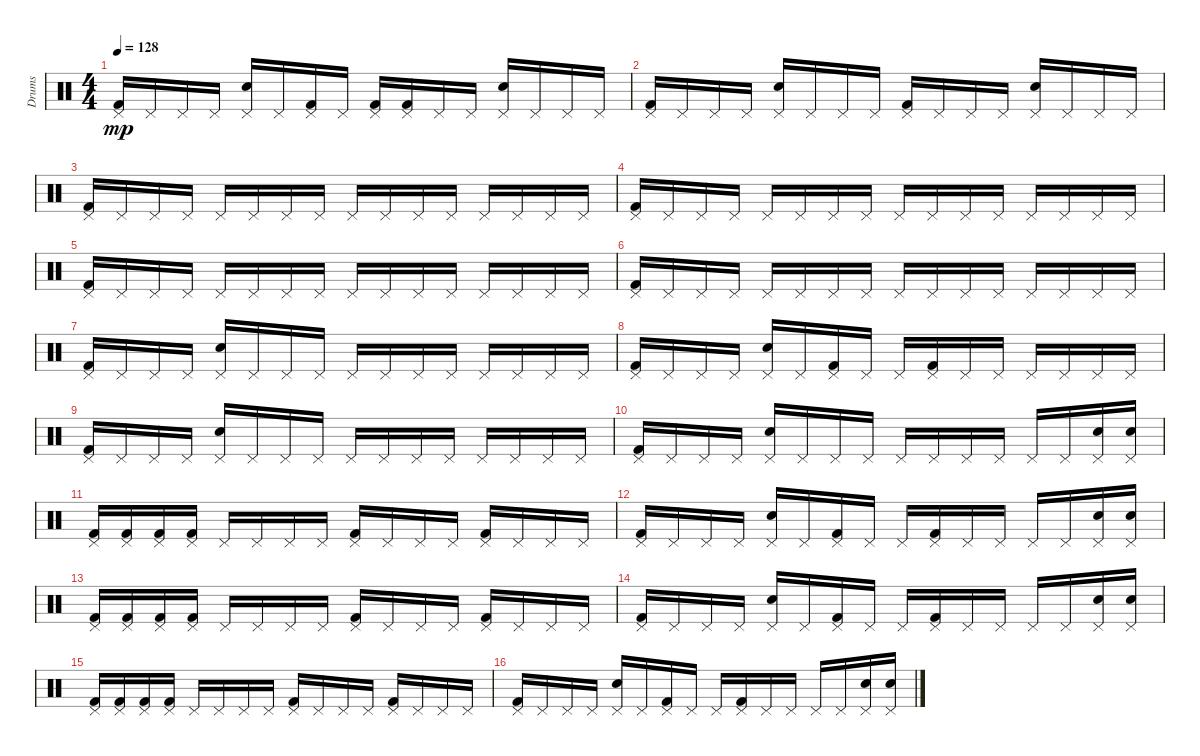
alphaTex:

\track ("Drums" "Drums") {instrument percussion}
\staff {score}
\articulation defaults
\ts (4 4)
\tempo 128
\clef neutral
\ks c
("Kick (hit) 2" "Pedal Hi-Hat (hit)").16{dy mp} "Pedal Hi-Hat (hit)".16 "Pedal Hi-Hat (hit)".16 "Pedal Hi-Hat (hit)".16 ("Electric Snare (hit)" "Pedal Hi-Hat (hit)").16 "Pedal Hi-Hat (hit)".16 ("Kick (hit) 2" "Pedal Hi-Hat (hit)").16 "Pedal Hi-Hat (hit)".16 ("Pedal Hi-Hat (hit)" "Kick (hit) 2").16 ("Pedal Hi-Hat (hit)" "Kick (hit) 2").16 "Pedal Hi-Hat (hit)".16 "Pedal Hi-Hat (hit)".16 ("Pedal Hi-Hat (hit)" "Electric Snare (hit)").16 "Pedal Hi-Hat (hit)".16 "Pedal Hi-Hat (hit)".16 "Pedal Hi-Hat (hit)".16 |
("Kick (hit) 2" "Pedal Hi-Hat (hit)").16 "Pedal Hi-Hat (hit)".16 "Pedal Hi-Hat (hit)".16 "Pedal Hi-Hat (hit)".16 ("Pedal Hi-Hat (hit)" "Electric Snare (hit)").16 "Pedal Hi-Hat (hit)".16 "Pedal Hi-Hat (hit)".16 "Pedal Hi-Hat (hit)".16 ("Pedal Hi-Hat (hit)" "Kick (hit) 2").16 "Pedal Hi-Hat (hit)".16 "Pedal Hi-Hat (hit)".16 "Pedal Hi-Hat (hit)".16 ("Pedal Hi-Hat (hit)" "Electric Snare (hit)").16 "Pedal Hi-Hat (hit)".16 "Pedal Hi-Hat (hit)".16 "Pedal Hi-Hat (hit)".16 |
("Pedal Hi-Hat (hit)" "Kick (hit) 2").16 "Pedal Hi-Hat (hit)".16 "Pedal Hi-Hat (hit)".16 "Pedal Hi-Hat (hit)".16 "Pedal Hi-Hat (hit)".16 "Pedal Hi-Hat (hit)".16 "Pedal Hi-Hat (hit)".16 "Pedal Hi-Hat (hit)".16 "Pedal Hi-Hat (hit)".16 "Pedal Hi-Hat (hit)".16 "Pedal Hi-Hat (hit)".16 "Pedal Hi-Hat (hit)".16 "Pedal Hi-Hat (hit)".16 "Pedal Hi-Hat (hit)".16 "Pedal Hi-Hat (hit)".16 "Pedal Hi-Hat (hit)".16 |
("Pedal Hi-Hat (hit)" "Kick (hit) 2").16 "Pedal Hi-Hat (hit)".16 "Pedal Hi-Hat (hit)".16 "Pedal Hi-Hat (hit)".16 "Pedal Hi-Hat (hit)".16 "Pedal Hi-Hat (hit)".16 "Pedal Hi-Hat (hit)".16 "Pedal Hi-Hat (hit)".16 "Pedal Hi-Hat (hit)".16 "Pedal Hi-Hat (hit)".16 "Pedal Hi-Hat (hit)".16 "Pedal Hi-Hat (hit)".16 "Pedal Hi-Hat (hit)".16 "Pedal Hi-Hat (hit)".16 "Pedal Hi-Hat (hit)".16 "Pedal Hi-Hat (hit)".16 |
("Kick (hit) 2" "Pedal Hi-Hat (hit)").16 "Pedal Hi-Hat (hit)".16 "Pedal Hi-Hat (hit)".16 "Pedal Hi-Hat (hit)".16 "Pedal Hi-Hat (hit)".16 "Pedal Hi-Hat (hit)".16 "Pedal Hi-Hat (hit)".16 "Pedal Hi-Hat (hit)".16 "Pedal Hi-Hat (hit)".16 "Pedal Hi-Hat (hit)".16 "Pedal Hi-Hat (hit)".16 "Pedal Hi-Hat (hit)".16 "Pedal Hi-Hat (hit)".16 "Pedal Hi-Hat (hit)".16 "Pedal Hi-Hat (hit)".16 "Pedal Hi-Hat (hit)".16 |
("Kick (hit) 2" "Pedal Hi-Hat (hit)").16 "Pedal Hi-Hat (hit)".16 "Pedal Hi-Hat (hit)".16 "Pedal Hi-Hat (hit)".16 "Pedal Hi-Hat (hit)".16 "Pedal Hi-Hat (hit)".16 "Pedal Hi-Hat (hit)".16 "Pedal Hi-Hat (hit)".16 "Pedal Hi-Hat (hit)".16 "Pedal Hi-Hat (hit)".16 "Pedal Hi-Hat (hit)".16 "Pedal Hi-Hat (hit)".16 "Pedal Hi-Hat (hit)".16 "Pedal Hi-Hat (hit)".16 "Pedal Hi-Hat (hit)".16 "Pedal Hi-Hat (hit)".16 |
("Pedal Hi-Hat (hit)" "Kick (hit) 2").16 "Pedal Hi-Hat (hit)".16 "Pedal Hi-Hat (hit)".16 "Pedal Hi-Hat (hit)".16 ("Pedal Hi-Hat (hit)" "Electric Snare (hit)").16 "Pedal Hi-Hat (hit)".16 "Pedal Hi-Hat (hit)".16 "Pedal Hi-Hat (hit)".16 "Pedal Hi-Hat (hit)".16 "Pedal Hi-Hat (hit)".16 "Pedal Hi-Hat (hit)".16 "Pedal Hi-Hat (hit)".16 "Pedal Hi-Hat (hit)".16 "Pedal Hi-Hat (hit)".16 "Pedal Hi-Hat (hit)".16 "Pedal Hi-Hat (hit)".16 |
("Pedal Hi-Hat (hit)" "Kick (hit) 2").16 "Pedal Hi-Hat (hit)".16 "Pedal Hi-Hat (hit)".16 "Pedal Hi-Hat (hit)".16 ("Pedal Hi-Hat (hit)" "Electric Snare (hit)").16 "Pedal Hi-Hat (hit)".16 ("Kick (hit) 2" "Pedal Hi-Hat (hit)").16 "Pedal Hi-Hat (hit)".16 "Pedal Hi-Hat (hit)".16 ("Kick (hit) 2" "Pedal Hi-Hat (hit)").16 "Pedal Hi-Hat (hit)".16 "Pedal Hi-Hat (hit)".16 "Pedal Hi-Hat (hit)".16 "Pedal Hi-Hat (hit)".16 "Pedal Hi-Hat (hit)".16 "Pedal Hi-Hat (hit)".16 |
("Kick (hit) 2" "Pedal Hi-Hat (hit)").16 "Pedal Hi-Hat (hit)".16 "Pedal Hi-Hat (hit)".16 "Pedal Hi-Hat (hit)".16 ("Electric Snare (hit)" "Pedal Hi-Hat (hit)").16 "Pedal Hi-Hat (hit)".16 "Pedal Hi-Hat (hit)".16 "Pedal Hi-Hat (hit)".16 "Pedal Hi-Hat (hit)".16 "Pedal Hi-Hat (hit)".16 "Pedal Hi-Hat (hit)".16 "Pedal Hi-Hat (hit)".16 "Pedal Hi-Hat (hit)".16 "Pedal Hi-Hat (hit)".16 "Pedal Hi-Hat (hit)".16 "Pedal Hi-Hat (hit)".16 |
("Kick (hit) 2" "Pedal Hi-Hat (hit)").16 "Pedal Hi-Hat (hit)".16 "Pedal Hi-Hat (hit)".16 "Pedal Hi-Hat (hit)".16 ("Pedal Hi-Hat (hit)" "Electric Snare (hit)").16 "Pedal Hi-Hat (hit)".16 "Pedal Hi-Hat (hit)".16 "Pedal Hi-Hat (hit)".16 "Pedal Hi-Hat (hit)".16 "Pedal Hi-Hat (hit)".16 "Pedal Hi-Hat (hit)".16 "Pedal Hi-Hat (hit)".16 "Pedal Hi-Hat (hit)".16 "Pedal Hi-Hat (hit)".16 ("Pedal Hi-Hat (hit)" "Electric Snare (hit)").16 ("Electric Snare (hit)" "Pedal Hi-Hat (hit)").16 |
("Kick (hit) 2" "Pedal Hi-Hat (hit)").16 ("Pedal Hi-Hat (hit)" "Kick (hit) 2").16 ("Pedal Hi-Hat (hit)" "Kick (hit) 2").16 ("Pedal Hi-Hat (hit)" "Kick (hit) 2").16 "Pedal Hi-Hat (hit)".16 "Pedal Hi-Hat (hit)".16 "Pedal Hi-Hat (hit)".16 "Pedal Hi-Hat (hit)".16 ("Kick (hit) 2" "Pedal Hi-Hat (hit)").16 "Pedal Hi-Hat (hit)".16 "Pedal Hi-Hat (hit)".16 "Pedal Hi-Hat (hit)".16 ("Kick (hit) 2" "Pedal Hi-Hat (hit)").16 "Pedal Hi-Hat (hit)".16 "Pedal Hi-Hat (hit)".16 "Pedal Hi-Hat (hit)".16 |
("Kick (hit) 2" "Pedal Hi-Hat (hit)").16 "Pedal Hi-Hat (hit)".16 "Pedal Hi-Hat (hit)".16 "Pedal Hi-Hat (hit)".16 ("Pedal Hi-Hat (hit)" "Electric Snare (hit)").16 "Pedal Hi-Hat (hit)".16 ("Pedal Hi-Hat (hit)" "Kick (hit) 2").16 "Pedal Hi-Hat (hit)".16 "Pedal Hi-Hat (hit)".16 ("Pedal Hi-Hat (hit)" "Kick (hit) 2").16 "Pedal Hi-Hat (hit)".16 "Pedal Hi-Hat (hit)".16 "Pedal Hi-Hat (hit)".16 "Pedal Hi-Hat (hit)".16 ("Pedal Hi-Hat (hit)" "Electric Snare (hit)").16 ("Pedal Hi-Hat (hit)" "Electric Snare (hit)").16 |
("Pedal Hi-Hat (hit)" "Kick (hit) 2").16 ("Pedal Hi-Hat (hit)" "Kick (hit) 2").16 ("Pedal Hi-Hat (hit)" "Kick (hit) 2").16 ("Pedal Hi-Hat (hit)" "Kick (hit) 2").16 "Pedal Hi-Hat (hit)".16 "Pedal Hi-Hat (hit)".16 "Pedal Hi-Hat (hit)".16 "Pedal Hi-Hat (hit)".16 ("Pedal Hi-Hat (hit)" "Kick (hit) 2").16 "Pedal Hi-Hat (hit)".16 "Pedal Hi-Hat (hit)".16 "Pedal Hi-Hat (hit)".16 ("Pedal Hi-Hat (hit)" "Kick (hit) 2").16 "Pedal Hi-Hat (hit)".16 "Pedal Hi-Hat (hit)".16 "Pedal Hi-Hat (hit)".16 |
("Pedal Hi-Hat (hit)" "Kick (hit) 2").16 "Pedal Hi-Hat (hit)".16 "Pedal Hi-Hat (hit)".16 "Pedal Hi-Hat (hit)".16 ("Pedal Hi-Hat (hit)" "Electric Snare (hit)").16 "Pedal Hi-Hat (hit)".16 ("Pedal Hi-Hat (hit)" "Kick (hit) 2").16 "Pedal Hi-Hat (hit)".16 "Pedal Hi-Hat (hit)".16 ("Pedal Hi-Hat (hit)" "Kick (hit) 2").16 "Pedal Hi-Hat (hit)".16 "Pedal Hi-Hat (hit)".16 "Pedal Hi-Hat (hit)".16 "Pedal Hi-Hat (hit)".16 ("Pedal Hi-Hat (hit)" "Electric Snare (hit)").16 ("Electric Snare (hit)" "Pedal Hi-Hat (hit)").16 |
("Pedal Hi-Hat (hit)" "Kick (hit) 2").16 ("Pedal Hi-Hat (hit)" "Kick (hit) 2").16 ("Kick (hit) 2" "Pedal Hi-Hat (hit)").16 ("Pedal Hi-Hat (hit)" "Kick (hit) 2").16 "Pedal Hi-Hat (hit)".16 "Pedal Hi-Hat (hit)".16 "Pedal Hi-Hat (hit)".16 "Pedal Hi-Hat (hit)".16 ("Pedal Hi-Hat (hit)" "Kick (hit) 2").16 "Pedal Hi-Hat (hit)".16 "Pedal Hi-Hat (hit)".16 "Pedal Hi-Hat (hit)".16 ("Pedal Hi-Hat (hit)" "Kick (hit) 2").16 "Pedal Hi-Hat (hit)".16 "Pedal Hi-Hat (hit)".16 "Pedal Hi-Hat (hit)".16 |
("Pedal Hi-Hat (hit)" "Kick (hit) 2").16 "Pedal Hi-Hat (hit)".16 "Pedal Hi-Hat (hit)".16 "Pedal Hi-Hat (hit)".16 ("Electric Snare (hit)" "Pedal Hi-Hat (hit)").16 "Pedal Hi-Hat (hit)".16 ("Kick (hit) 2" "Pedal Hi-Hat (hit)").16 "Pedal Hi-Hat (hit)".16 "Pedal Hi-Hat (hit)".16 ("Kick (hit) 2" "Pedal Hi-Hat (hit)").16 "Pedal Hi-Hat (hit)".16 "Pedal Hi-Hat (hit)".16 "Pedal Hi-Hat (hit)".16 "Pedal Hi-Hat (hit)".16 ("Electric Snare (hit)" "Pedal Hi-Hat (hit)").16 ("Electric Snare (hit)" "Pedal Hi-Hat (hit)").16
